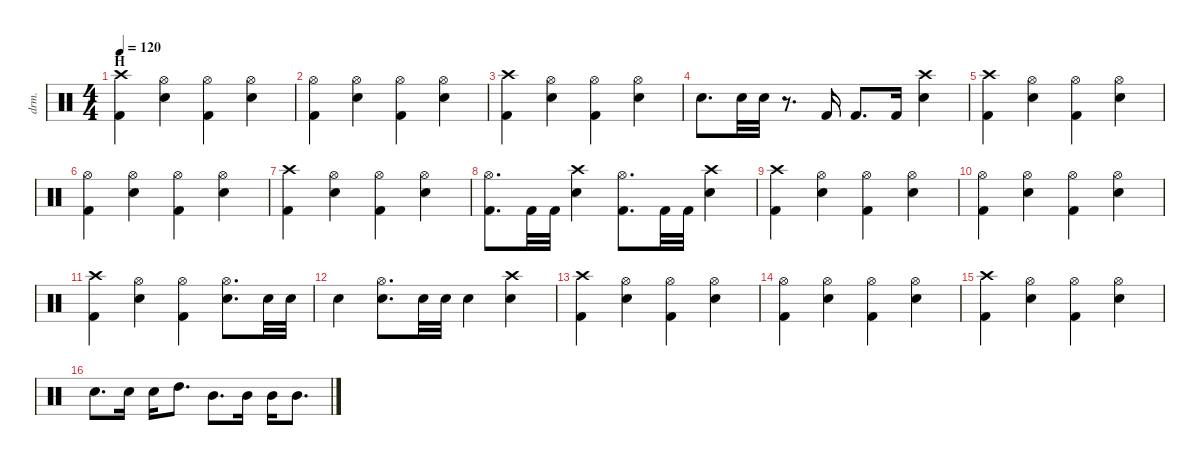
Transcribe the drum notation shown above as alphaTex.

\defaultSystemsLayout 4
\hideDynamics
\bracketExtendMode nobrackets
\track ("Drums" "drm.") {instrument percussion}
\staff {score}
\articulation defaults
\ts (4 4)
\section ("" "H")
\tempo 120
\clef neutral
\ks c
("Crash high (hit)" "Kick (hit) 2").4{dy f} ("Hi-Hat (open)" "Snare (hit) 2").4 ("Hi-Hat (open)" "Kick (hit) 2").4 ("Hi-Hat (open)" "Snare (hit) 2").4 |
("Hi-Hat (open)" "Kick (hit) 2").4 ("Hi-Hat (open)" "Snare (hit) 2").4 ("Hi-Hat (open)" "Kick (hit) 2").4 ("Hi-Hat (open)" "Snare (hit) 2").4 |
("Crash high (hit)" "Kick (hit) 2").4 ("Hi-Hat (open)" "Snare (hit) 2").4 ("Hi-Hat (open)" "Kick (hit) 2").4 ("Hi-Hat (open)" "Snare (hit) 2").4 |
"Snare (hit) 2".8{d} "Snare (hit) 2".32 "Snare (hit) 2".32 r.8{d} "Kick (hit) 2".16 "Kick (hit) 2".8{d} "Kick (hit) 2".16 ("Crash high (hit)" "Snare (hit) 2").4 |
("Crash high (hit)" "Kick (hit) 2").4 ("Hi-Hat (open)" "Snare (hit) 2").4 ("Hi-Hat (open)" "Kick (hit) 2").4 ("Hi-Hat (open)" "Snare (hit) 2").4 |
("Hi-Hat (open)" "Kick (hit) 2").4 ("Hi-Hat (open)" "Snare (hit) 2").4 ("Hi-Hat (open)" "Kick (hit) 2").4 ("Hi-Hat (open)" "Snare (hit) 2").4 |
("Crash high (hit)" "Kick (hit) 2").4 ("Hi-Hat (open)" "Snare (hit) 2").4 ("Hi-Hat (open)" "Kick (hit) 2").4 ("Hi-Hat (open)" "Snare (hit) 2").4 |
("Hi-Hat (open)" "Kick (hit) 2").8{d} "Kick (hit) 2".32 "Kick (hit) 2".32 ("Crash high (hit)" "Snare (hit) 2").4 ("Hi-Hat (open)" "Kick (hit) 2").8{d} "Kick (hit) 2".32 "Kick (hit) 2".32 ("Crash high (hit)" "Snare (hit) 2").4 |
("Crash high (hit)" "Kick (hit) 2").4 ("Hi-Hat (open)" "Snare (hit) 2").4 ("Hi-Hat (open)" "Kick (hit) 2").4 ("Hi-Hat (open)" "Snare (hit) 2").4 |
("Hi-Hat (open)" "Kick (hit) 2").4 ("Hi-Hat (open)" "Snare (hit) 2").4 ("Hi-Hat (open)" "Kick (hit) 2").4 ("Hi-Hat (open)" "Snare (hit) 2").4 |
("Crash high (hit)" "Kick (hit) 2").4 ("Hi-Hat (open)" "Snare (hit) 2").4 ("Hi-Hat (open)" "Kick (hit) 2").4 ("Hi-Hat (open)" "Snare (hit) 2").8{d} "Snare (hit) 2".32 "Snare (hit) 2".32 |
"Snare (hit) 2".4 ("Hi-Hat (open)" "Snare (hit) 2").8{d} "Snare (hit) 2".32 "Snare (hit) 2".32 "Snare (hit) 2".4 ("Crash high (hit)" "Snare (hit) 2").4 |
("Crash high (hit)" "Kick (hit) 2").4 ("Hi-Hat (open)" "Snare (hit) 2").4 ("Hi-Hat (open)" "Kick (hit) 2").4 ("Hi-Hat (open)" "Snare (hit) 2").4 |
("Hi-Hat (open)" "Kick (hit) 2").4 ("Hi-Hat (open)" "Snare (hit) 2").4 ("Hi-Hat (open)" "Kick (hit) 2").4 ("Hi-Hat (open)" "Snare (hit) 2").4 |
("Crash high (hit)" "Kick (hit) 2").4 ("Hi-Hat (open)" "Snare (hit) 2").4 ("Hi-Hat (open)" "Kick (hit) 2").4 ("Hi-Hat (open)" "Snare (hit) 2").4 |
"Snare (hit) 2".8{d} "Snare (hit) 2".16 "Snare (hit) 2".16 "High Tom (hit)".8{d} "Mid Tom (hit)".8{d} "Mid Tom (hit)".16 "Mid Tom (hit)".16 "Mid Tom (hit)".8{d}
